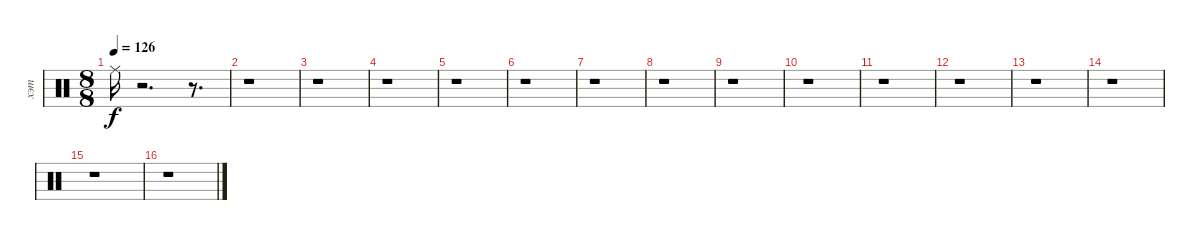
\track ("хэт" "хэт") {instrument percussion}
\staff {score}
\articulation defaults
\ts (8 8)
\tempo 126
\clef neutral
\ks c "Ride (middle)".16{dy f}
r.2{d} r.8{d} |
r.1 |
r.1 |
r.1 |
r.1 |
r.1 |
r.1 |
r.1 |
r.1 |
r.1 |
r.1 |
r.1 |
r.1 |
r.1 |
r.1 |
r.1
